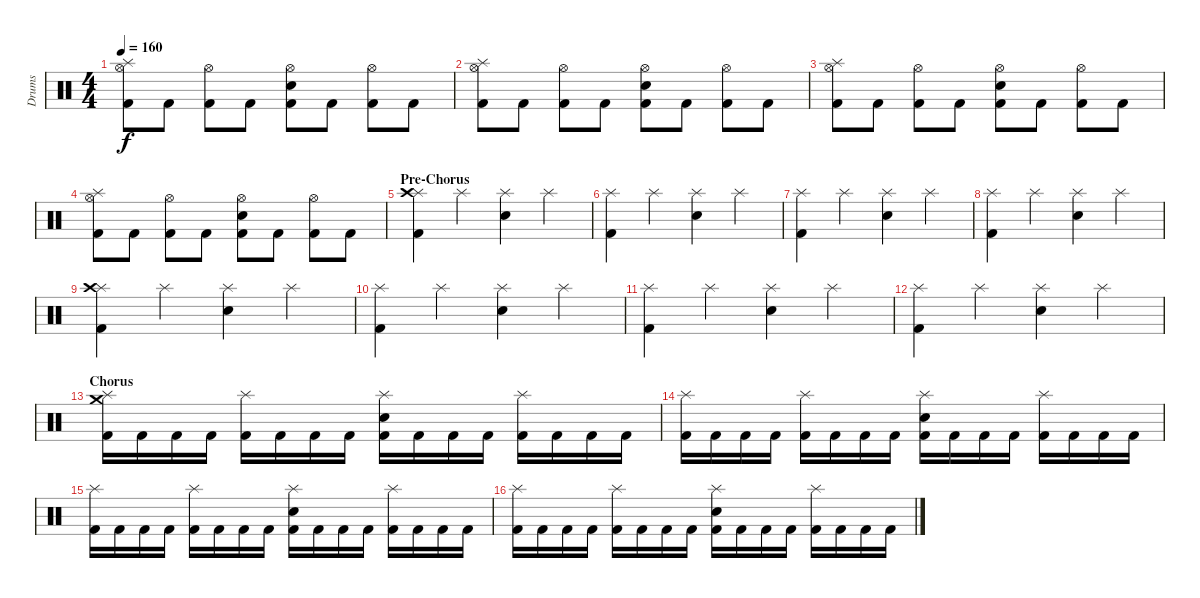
\track ("Drums" "Drums") {instrument percussion}
\staff {score}
\articulation defaults
\ts (4 4)
\tempo 160
\clef neutral
\ks c
("Hi-Hat (open)" "Splash (hit)" "Kick (hit) 2").8{dy f} "Kick (hit) 2".8 ("Hi-Hat (open)" "Kick (hit) 2").8 "Kick (hit) 2".8 ("Hi-Hat (open)" "Snare (hit) 2" "Kick (hit) 2").8 "Kick (hit) 2".8 ("Hi-Hat (open)" "Kick (hit) 2").8 "Kick (hit) 2".8 |
("Hi-Hat (open)" "Splash (hit)" "Kick (hit) 2").8 "Kick (hit) 2".8 ("Hi-Hat (open)" "Kick (hit) 2").8 "Kick (hit) 2".8 ("Hi-Hat (open)" "Snare (hit) 2" "Kick (hit) 2").8 "Kick (hit) 2".8 ("Hi-Hat (open)" "Kick (hit) 2").8 "Kick (hit) 2".8 |
("Hi-Hat (open)" "Splash (hit)" "Kick (hit) 2").8 "Kick (hit) 2".8 ("Hi-Hat (open)" "Kick (hit) 2").8 "Kick (hit) 2".8 ("Hi-Hat (open)" "Snare (hit) 2" "Kick (hit) 2").8 "Kick (hit) 2".8 ("Hi-Hat (open)" "Kick (hit) 2").8 "Kick (hit) 2".8 |
("Hi-Hat (open)" "Splash (hit)" "Kick (hit) 2").8 "Kick (hit) 2".8 ("Hi-Hat (open)" "Kick (hit) 2").8 "Kick (hit) 2".8 ("Hi-Hat (open)" "Snare (hit) 2" "Kick (hit) 2").8 "Kick (hit) 2".8 ("Hi-Hat (open)" "Kick (hit) 2").8 "Kick (hit) 2".8 |
\section ("" "Pre-Chorus")
("Splash (hit)" "Crash high (hit)" "Kick (hit) 2").4 "Splash (hit)".4 ("Splash (hit)" "Snare (hit) 2").4 "Splash (hit)".4 |
("Splash (hit)" "Kick (hit) 2").4 "Splash (hit)".4 ("Splash (hit)" "Snare (hit) 2").4 "Splash (hit)".4 |
("Splash (hit)" "Kick (hit) 2").4 "Splash (hit)".4 ("Splash (hit)" "Snare (hit) 2").4 "Splash (hit)".4 |
("Splash (hit)" "Kick (hit) 2").4 "Splash (hit)".4 ("Splash (hit)" "Snare (hit) 2").4 "Splash (hit)".4 |
("Splash (hit)" "Crash high (hit)" "Kick (hit) 2").4 "Splash (hit)".4 ("Splash (hit)" "Snare (hit) 2").4 "Splash (hit)".4 |
("Splash (hit)" "Kick (hit) 2").4 "Splash (hit)".4 ("Splash (hit)" "Snare (hit) 2").4 "Splash (hit)".4 |
("Splash (hit)" "Kick (hit) 2").4 "Splash (hit)".4 ("Splash (hit)" "Snare (hit) 2").4 "Splash (hit)".4 |
("Splash (hit)" "Kick (hit) 2").4 "Splash (hit)".4 ("Splash (hit)" "Snare (hit) 2").4 "Splash (hit)".4 |
\section ("" "Chorus")
("Splash (hit)" "Crash medium (hit)" "Kick (hit) 2").16 "Kick (hit) 2".16 "Kick (hit) 2".16 "Kick (hit) 2".16 ("Splash (hit)" "Kick (hit) 2").16 "Kick (hit) 2".16 "Kick (hit) 2".16 "Kick (hit) 2".16 ("Splash (hit)" "Snare (hit) 2" "Kick (hit) 2").16 "Kick (hit) 2".16 "Kick (hit) 2".16 "Kick (hit) 2".16 ("Splash (hit)" "Kick (hit) 2").16 "Kick (hit) 2".16 "Kick (hit) 2".16 "Kick (hit) 2".16 |
("Splash (hit)" "Kick (hit) 2").16 "Kick (hit) 2".16 "Kick (hit) 2".16 "Kick (hit) 2".16 ("Splash (hit)" "Kick (hit) 2").16 "Kick (hit) 2".16 "Kick (hit) 2".16 "Kick (hit) 2".16 ("Splash (hit)" "Snare (hit) 2" "Kick (hit) 2").16 "Kick (hit) 2".16 "Kick (hit) 2".16 "Kick (hit) 2".16 ("Splash (hit)" "Kick (hit) 2").16 "Kick (hit) 2".16 "Kick (hit) 2".16 "Kick (hit) 2".16 |
("Splash (hit)" "Kick (hit) 2").16 "Kick (hit) 2".16 "Kick (hit) 2".16 "Kick (hit) 2".16 ("Splash (hit)" "Kick (hit) 2").16 "Kick (hit) 2".16 "Kick (hit) 2".16 "Kick (hit) 2".16 ("Splash (hit)" "Snare (hit) 2" "Kick (hit) 2").16 "Kick (hit) 2".16 "Kick (hit) 2".16 "Kick (hit) 2".16 ("Splash (hit)" "Kick (hit) 2").16 "Kick (hit) 2".16 "Kick (hit) 2".16 "Kick (hit) 2".16 |
("Splash (hit)" "Kick (hit) 2").16 "Kick (hit) 2".16 "Kick (hit) 2".16 "Kick (hit) 2".16 ("Splash (hit)" "Kick (hit) 2").16 "Kick (hit) 2".16 "Kick (hit) 2".16 "Kick (hit) 2".16 ("Splash (hit)" "Snare (hit) 2" "Kick (hit) 2").16 "Kick (hit) 2".16 "Kick (hit) 2".16 "Kick (hit) 2".16 ("Splash (hit)" "Kick (hit) 2").16 "Kick (hit) 2".16 "Kick (hit) 2".16 "Kick (hit) 2".16
